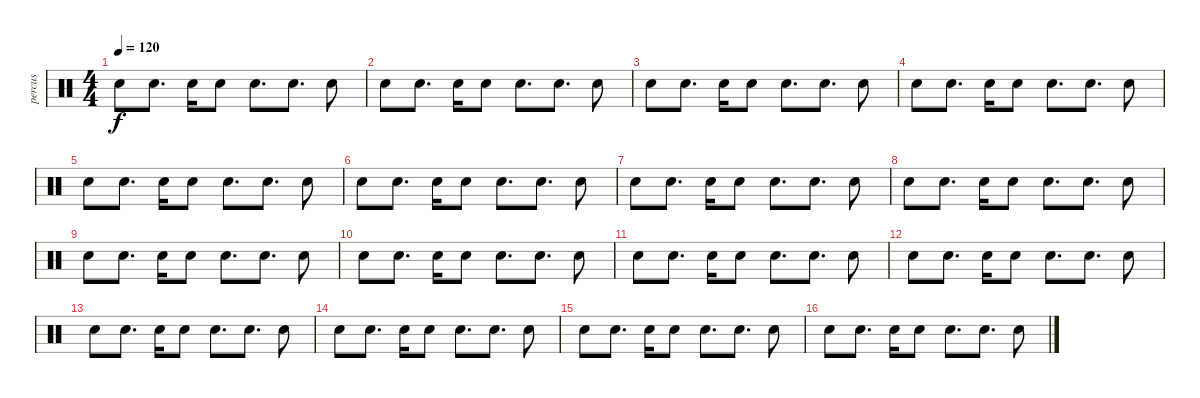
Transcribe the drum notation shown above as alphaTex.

\track ("percus" "percus") {instrument percussion}
\staff {score}
\articulation defaults
\ts (4 4)
\tempo 120
\clef neutral
\ks c "Snare (hit)".8{dy f volume 16} "Snare (hit)".8{d} "Snare (hit)".16 "Snare (hit)".8 "Snare (hit)".8{d} "Snare (hit)".8{d} "Snare (hit)".8
|
"Snare (hit)".8 "Snare (hit)".8{d} "Snare (hit)".16 "Snare (hit)".8 "Snare (hit)".8{d} "Snare (hit)".8{d} "Snare (hit)".8 |
"Snare (hit)".8 "Snare (hit)".8{d} "Snare (hit)".16 "Snare (hit)".8 "Snare (hit)".8{d} "Snare (hit)".8{d} "Snare (hit)".8 |
"Snare (hit)".8 "Snare (hit)".8{d} "Snare (hit)".16 "Snare (hit)".8 "Snare (hit)".8{d} "Snare (hit)".8{d} "Snare (hit)".8 |
"Snare (hit)".8 "Snare (hit)".8{d} "Snare (hit)".16 "Snare (hit)".8 "Snare (hit)".8{d} "Snare (hit)".8{d} "Snare (hit)".8 |
"Snare (hit)".8 "Snare (hit)".8{d} "Snare (hit)".16 "Snare (hit)".8 "Snare (hit)".8{d} "Snare (hit)".8{d} "Snare (hit)".8 |
"Snare (hit)".8 "Snare (hit)".8{d} "Snare (hit)".16 "Snare (hit)".8 "Snare (hit)".8{d} "Snare (hit)".8{d} "Snare (hit)".8 |
"Snare (hit)".8 "Snare (hit)".8{d} "Snare (hit)".16 "Snare (hit)".8 "Snare (hit)".8{d} "Snare (hit)".8{d} "Snare (hit)".8 |
"Snare (hit)".8 "Snare (hit)".8{d} "Snare (hit)".16 "Snare (hit)".8 "Snare (hit)".8{d} "Snare (hit)".8{d} "Snare (hit)".8 |
"Snare (hit)".8 "Snare (hit)".8{d} "Snare (hit)".16 "Snare (hit)".8 "Snare (hit)".8{d} "Snare (hit)".8{d} "Snare (hit)".8 |
"Snare (hit)".8 "Snare (hit)".8{d} "Snare (hit)".16 "Snare (hit)".8 "Snare (hit)".8{d} "Snare (hit)".8{d} "Snare (hit)".8 |
"Snare (hit)".8 "Snare (hit)".8{d} "Snare (hit)".16 "Snare (hit)".8 "Snare (hit)".8{d} "Snare (hit)".8{d} "Snare (hit)".8 |
"Snare (hit)".8 "Snare (hit)".8{d} "Snare (hit)".16 "Snare (hit)".8 "Snare (hit)".8{d} "Snare (hit)".8{d} "Snare (hit)".8 |
"Snare (hit)".8 "Snare (hit)".8{d} "Snare (hit)".16 "Snare (hit)".8 "Snare (hit)".8{d} "Snare (hit)".8{d} "Snare (hit)".8 |
"Snare (hit)".8 "Snare (hit)".8{d} "Snare (hit)".16 "Snare (hit)".8 "Snare (hit)".8{d} "Snare (hit)".8{d} "Snare (hit)".8 |
"Snare (hit)".8 "Snare (hit)".8{d} "Snare (hit)".16 "Snare (hit)".8 "Snare (hit)".8{d} "Snare (hit)".8{d} "Snare (hit)".8
